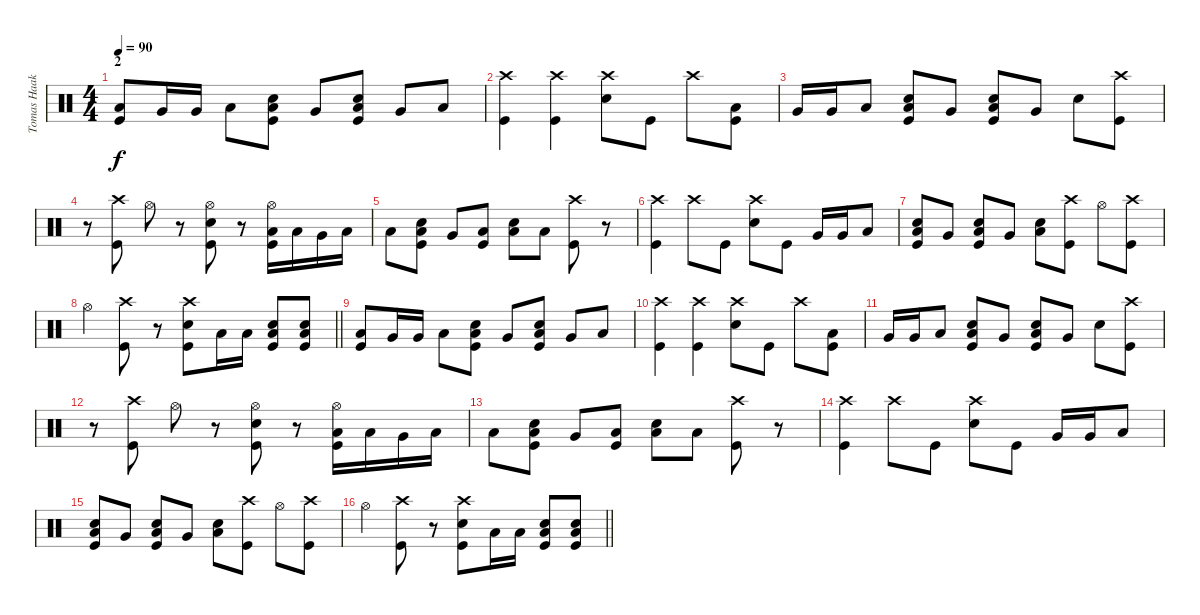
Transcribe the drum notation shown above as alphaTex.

\track ("Tomas Haake" "Tomas Haak") {instrument percussion}
\staff {score}
\articulation defaults
\ts (4 4)
\section ("" "2")
\tempo 90
\clef neutral
\ks c
("Low Tom (hit)" "Kick (hit)").8{dy f} "Very Low Tom (hit)".16 "Very Low Tom (hit)".16 "Low Floor Tom (hit)".8 ("Electric Snare (hit)" "Low Tom (hit)" "Kick (hit)").8 "Very Low Tom (hit)".8 ("Electric Snare (hit)" "Low Tom (hit)" "Kick (hit)").8 "Very Low Tom (hit)".8 "Low Floor Tom (hit)".8 |
("Crash high (hit)" "Kick (hit)").4 ("Crash high (hit)" "Kick (hit)").4 ("Crash high (hit)" "Electric Snare (hit)").8 "Kick (hit)".8 "Crash high (hit)".8 ("Low Tom (hit)" "Kick (hit)").8 |
"Very Low Tom (hit)".16 "Very Low Tom (hit)".16 "Low Floor Tom (hit)".8 ("Electric Snare (hit)" "Low Tom (hit)" "Kick (hit)").8 "Very Low Tom (hit)".8 ("Electric Snare (hit)" "Low Tom (hit)" "Kick (hit)").8 "Very Low Tom (hit)".8 "Electric Snare (hit)".8 ("Crash high (hit)" "Kick (hit)").8 |
r.8 ("Crash high (hit)" "Kick (hit)").8 "Hi-Hat (open)".8 r.8 ("Hi-Hat (open)" "Electric Snare (hit)" "Kick (hit)").8 r.8 ("Hi-Hat (open)" "Low Tom (hit)" "Kick (hit)").16 "Low Tom (hit)".16 "Very Low Tom (hit)".16 "Low Floor Tom (hit)".16 |
"Low Floor Tom (hit)".8 ("Electric Snare (hit)" "Low Tom (hit)" "Kick (hit)").8 "Very Low Tom (hit)".8 ("Low Floor Tom (hit)" "Kick (hit)").8 ("Electric Snare (hit)" "Low Floor Tom (hit)").8 "Low Floor Tom (hit)".8 ("Crash high (hit)" "Kick (hit)").8 r.8 |
("Crash high (hit)" "Kick (hit)").4 "Crash high (hit)".8 "Kick (hit)".8 ("Crash high (hit)" "Electric Snare (hit)").8 "Kick (hit)".8 "Very Low Tom (hit)".16 "Very Low Tom (hit)".16 "Low Floor Tom (hit)".8 |
("Electric Snare (hit)" "Low Tom (hit)" "Kick (hit)").8 "Very Low Tom (hit)".8 ("Electric Snare (hit)" "Low Tom (hit)" "Kick (hit)").8 "Very Low Tom (hit)".8 ("Electric Snare (hit)" "Low Floor Tom (hit)").8 ("Crash high (hit)" "Kick (hit)").8 "Hi-Hat (open)".8 ("Crash high (hit)" "Kick (hit)").8 |
\barLineRight lightlight "Hi-Hat (open)".4
("Crash high (hit)" "Kick (hit)").8 r.8 ("Crash high (hit)" "Electric Snare (hit)" "Kick (hit)").8 "Low Floor Tom (hit)".16 "Low Floor Tom (hit)".16 ("Electric Snare (hit)" "Low Floor Tom (hit)" "Kick (hit)").8 ("Electric Snare (hit)" "Low Floor Tom (hit)" "Kick (hit)").8 |
\section ("" "")
("Low Tom (hit)" "Kick (hit)").8 "Very Low Tom (hit)".16 "Very Low Tom (hit)".16 "Low Floor Tom (hit)".8 ("Electric Snare (hit)" "Low Tom (hit)" "Kick (hit)").8 "Very Low Tom (hit)".8 ("Electric Snare (hit)" "Low Tom (hit)" "Kick (hit)").8 "Very Low Tom (hit)".8 "Low Floor Tom (hit)".8 |
("Crash high (hit)" "Kick (hit)").4 ("Crash high (hit)" "Kick (hit)").4 ("Crash high (hit)" "Electric Snare (hit)").8 "Kick (hit)".8 "Crash high (hit)".8 ("Low Tom (hit)" "Kick (hit)").8 |
"Very Low Tom (hit)".16 "Very Low Tom (hit)".16 "Low Floor Tom (hit)".8 ("Electric Snare (hit)" "Low Tom (hit)" "Kick (hit)").8 "Very Low Tom (hit)".8 ("Electric Snare (hit)" "Low Tom (hit)" "Kick (hit)").8 "Very Low Tom (hit)".8 "Electric Snare (hit)".8 ("Crash high (hit)" "Kick (hit)").8 |
r.8 ("Crash high (hit)" "Kick (hit)").8 "Hi-Hat (open)".8 r.8 ("Hi-Hat (open)" "Electric Snare (hit)" "Kick (hit)").8 r.8 ("Hi-Hat (open)" "Low Tom (hit)" "Kick (hit)").16 "Low Tom (hit)".16 "Very Low Tom (hit)".16 "Low Floor Tom (hit)".16 |
"Low Floor Tom (hit)".8 ("Electric Snare (hit)" "Low Tom (hit)" "Kick (hit)").8 "Very Low Tom (hit)".8 ("Low Floor Tom (hit)" "Kick (hit)").8 ("Electric Snare (hit)" "Low Floor Tom (hit)").8 "Low Floor Tom (hit)".8 ("Crash high (hit)" "Kick (hit)").8 r.8 |
("Crash high (hit)" "Kick (hit)").4 "Crash high (hit)".8 "Kick (hit)".8 ("Crash high (hit)" "Electric Snare (hit)").8 "Kick (hit)".8 "Very Low Tom (hit)".16 "Very Low Tom (hit)".16 "Low Floor Tom (hit)".8 |
("Electric Snare (hit)" "Low Tom (hit)" "Kick (hit)").8 "Very Low Tom (hit)".8 ("Electric Snare (hit)" "Low Tom (hit)" "Kick (hit)").8 "Very Low Tom (hit)".8 ("Electric Snare (hit)" "Low Floor Tom (hit)").8 ("Crash high (hit)" "Kick (hit)").8 "Hi-Hat (open)".8 ("Crash high (hit)" "Kick (hit)").8 |
\barLineRight lightlight "Hi-Hat (open)".4
("Crash high (hit)" "Kick (hit)").8 r.8 ("Crash high (hit)" "Electric Snare (hit)" "Kick (hit)").8 "Low Floor Tom (hit)".16 "Low Floor Tom (hit)".16 ("Electric Snare (hit)" "Low Floor Tom (hit)" "Kick (hit)").8 ("Electric Snare (hit)" "Low Floor Tom (hit)" "Kick (hit)").8
